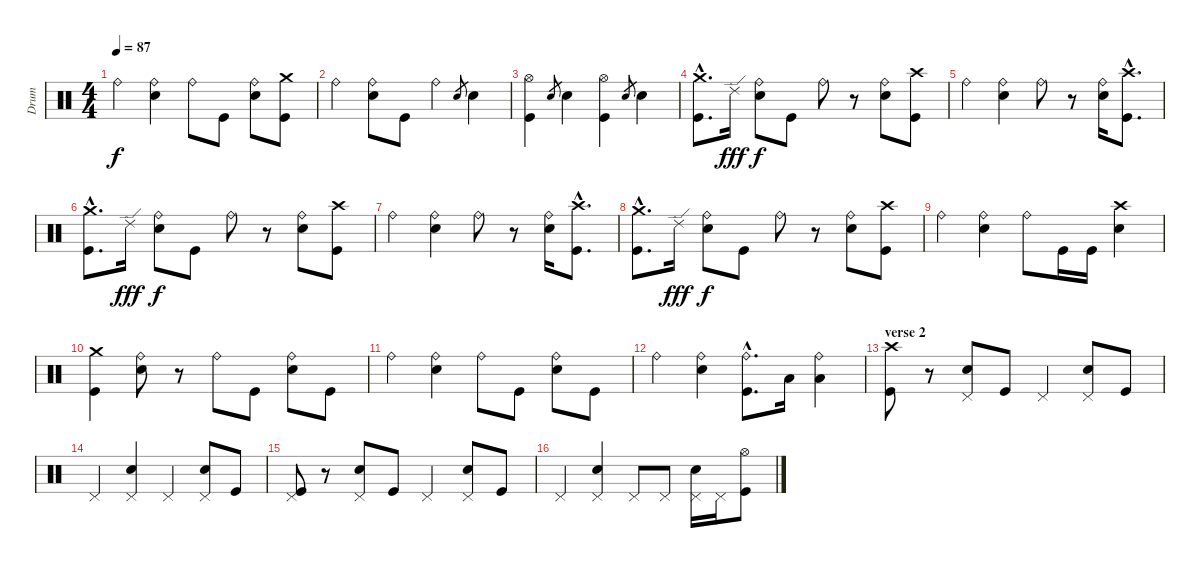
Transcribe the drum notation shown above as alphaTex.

\track ("Drum" "Drum") {instrument percussion}
\staff {score}
\articulation defaults
\ts (4 4)
\tempo 87
\clef neutral
\ks c "Ride (bell)".4{dy f}
("Ride (bell)" "Snare (hit) 2").4 "Ride (bell)".8 "Kick (hit)".8 ("Ride (bell)" "Snare (hit) 2").8 ("Crash medium (hit)" "Kick (hit)").8 |
"Ride (bell)".4 ("Ride (bell)" "Snare (hit) 2").8 "Kick (hit)".8 "Ride (bell)".4 "Snare (hit) 2".8{gr} "Snare (hit) 2".4 |
("Hi-Hat (open)" "Kick (hit)").4 "Snare (hit) 2".8{gr} "Snare (hit) 2".4 ("Hi-Hat (open)" "Kick (hit)").4 "Snare (hit) 2".8{gr} "Snare (hit) 2".4 |
("Crash medium (hit)"{hac} "Kick (hit)"{hac}).8{d} "Ride (edge) 2".16{dy fff} ("Ride (bell)" "Snare (hit) 2").8{dy f} "Kick (hit)".8 "Ride (bell)".8 r.8 ("Ride (bell)" "Snare (hit) 2").8 ("Crash high (hit)" "Kick (hit)").8 |
"Ride (bell)".4 ("Ride (bell)" "Snare (hit) 2").4 "Ride (bell)".8 r.8 ("Ride (bell)" "Snare (hit) 2").16 ("Crash high (hit)"{hac} "Kick (hit)"{hac}).8{d} |
("Crash medium (hit)"{hac} "Kick (hit)"{hac}).8{d} "Ride (edge) 2".16{dy fff} ("Ride (bell)" "Snare (hit) 2").8{dy f} "Kick (hit)".8 "Ride (bell)".8 r.8 ("Ride (bell)" "Snare (hit) 2").8 ("Crash high (hit)" "Kick (hit)").8 |
"Ride (bell)".4 ("Ride (bell)" "Snare (hit) 2").4 "Ride (bell)".8 r.8 ("Ride (bell)" "Snare (hit) 2").16 ("Crash high (hit)"{hac} "Kick (hit)"{hac}).8{d} |
("Crash medium (hit)"{hac} "Kick (hit)"{hac}).8{d} "Ride (edge) 2".16{dy fff} ("Ride (bell)" "Snare (hit) 2").8{dy f} "Kick (hit)".8 "Ride (bell)".8 r.8 ("Ride (bell)" "Snare (hit) 2").8 ("Crash high (hit)" "Kick (hit)").8 |
"Ride (bell)".4 ("Ride (bell)" "Snare (hit) 2").4 "Ride (bell)".8 "Kick (hit)".16 "Kick (hit)".16 ("Crash high (hit)" "Snare (hit) 2").4 |
("Crash medium (hit)" "Kick (hit)").4 ("Ride (bell)" "Snare (hit) 2").8 r.8 "Ride (bell)".8 "Kick (hit)".8 ("Ride (bell)" "Snare (hit) 2").8 "Kick (hit)".8 |
"Ride (bell)".4 ("Ride (bell)" "Snare (hit) 2").4 "Ride (bell)".8 "Kick (hit)".8 ("Ride (bell)" "Snare (hit) 2").8 "Kick (hit)".8 |
"Ride (bell)".4 ("Ride (bell)" "Snare (hit) 2").4 ("Ride (bell)"{hac} "Kick (hit)"{hac}).8{d} "Low Tom (hit)".16 ("Ride (bell)" "Low Tom (hit)").4 |
\section ("" "verse 2")
("Crash high (hit)" "Kick (hit)").8 r.8 ("Pedal Hi-Hat (hit)" "Snare (hit) 2").8 "Kick (hit)".8 "Pedal Hi-Hat (hit)".4 ("Pedal Hi-Hat (hit)" "Snare (hit) 2").8 "Kick (hit)".8 |
"Pedal Hi-Hat (hit)".4 ("Pedal Hi-Hat (hit)" "Snare (hit) 2").4 "Pedal Hi-Hat (hit)".4 ("Pedal Hi-Hat (hit)" "Snare (hit) 2").8 "Kick (hit)".8 |
("Pedal Hi-Hat (hit)" "Kick (hit)").8 r.8 ("Pedal Hi-Hat (hit)" "Snare (hit) 2").8 "Kick (hit)".8 "Pedal Hi-Hat (hit)".4 ("Pedal Hi-Hat (hit)" "Snare (hit) 2").8 "Kick (hit)".8 |
"Pedal Hi-Hat (hit)".4 ("Pedal Hi-Hat (hit)" "Snare (hit) 2").4 "Pedal Hi-Hat (hit)".8 "Pedal Hi-Hat (hit)".8 ("Pedal Hi-Hat (hit)" "Snare (hit) 2").16 "Pedal Hi-Hat (hit)".16 ("Hi-Hat (open)" "Kick (hit)").8
